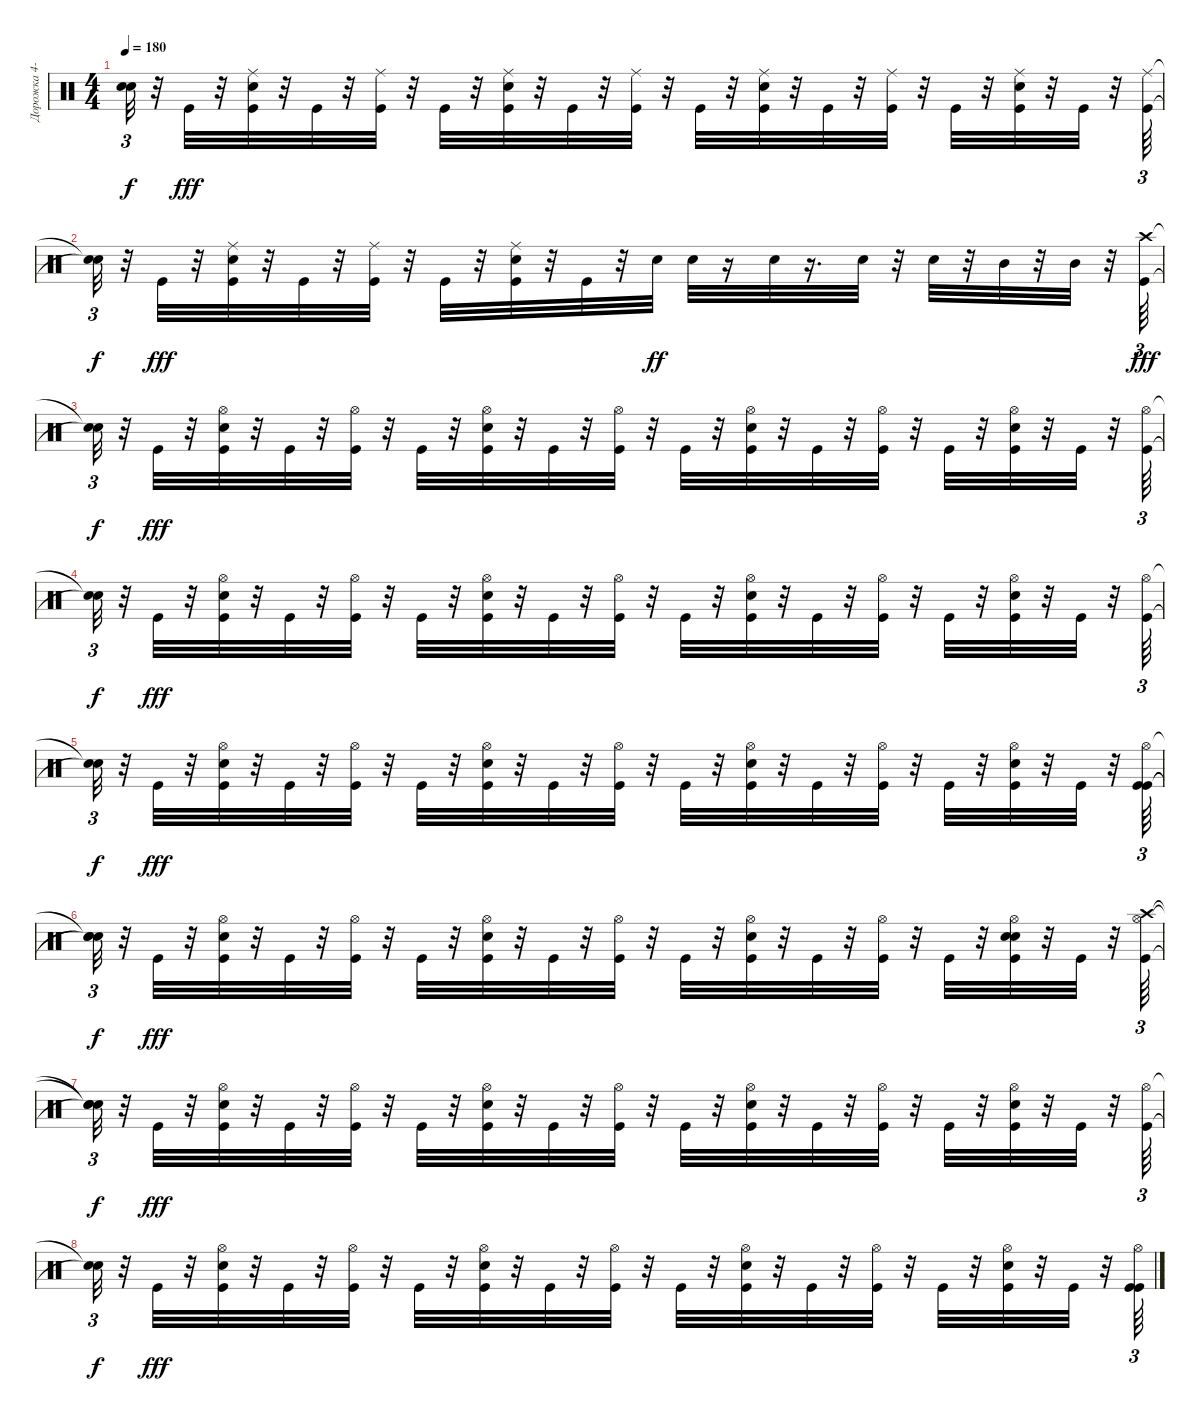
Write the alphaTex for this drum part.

\track ("Дорожка 4-10-11" "Дорожка 4-") {instrument percussion}
\staff {score}
\articulation defaults
\ts (4 4)
\tempo 180
\clef neutral
\ks c
("Snare (hit)"{t} "Snare (hit)"{t}).32{tu (3 2) dy f} r.32 "Kick (hit)".32{dy fff} r.32 ("Ride (middle)" "Snare (hit) 2" "Kick (hit)").32 r.32 "Kick (hit)".32 r.32 ("Ride (middle)" "Kick (hit)").32 r.32 "Kick (hit)".32 r.32 ("Ride (middle)" "Snare (hit) 2" "Kick (hit)").32 r.32 "Kick (hit)".32 r.32 ("Ride (middle)" "Kick (hit)").32 r.32 "Kick (hit)".32 r.32 ("Ride (middle)" "Snare (hit) 2" "Kick (hit)").32 r.32 "Kick (hit)".32 r.32 ("Ride (middle)" "Kick (hit)").32 r.32 "Kick (hit)".32 r.32 ("Ride (middle)" "Snare (hit) 2" "Kick (hit)").32 r.32 "Kick (hit)".32 r.32 ("Ride (middle)" "Kick (hit)").64{tu (3 2)} |
("Snare (hit)"{t} "Snare (hit)"{t}).32{tu (3 2) dy f} r.32 "Kick (hit)".32{dy fff} r.32 ("Ride (middle)" "Snare (hit) 2" "Kick (hit)").32 r.32 "Kick (hit)".32 r.32 ("Ride (middle)" "Kick (hit)").32 r.32 "Kick (hit)".32 r.32 ("Ride (middle)" "Snare (hit) 2" "Kick (hit)").32 r.32 "Kick (hit)".32 r.32 "Snare (hit) 2".32{dy ff} "Snare (hit) 2".32 r.16 "Snare (hit) 2".32 r.16{d} "Snare (hit) 2".32 r.32 "Snare (hit) 2".32 r.32 "Mid Tom (hit)".32 r.32 "Mid Tom (hit)".32 r.32 ("Crash high (hit)" "Kick (hit)").64{tu (3 2) dy fff} |
("Snare (hit)"{t} "Snare (hit)"{t}).32{tu (3 2) dy f} r.32 "Kick (hit)".32{dy fff} r.32 ("Hi-Hat (open)" "Snare (hit) 2" "Kick (hit)").32 r.32 "Kick (hit)".32 r.32 ("Hi-Hat (open)" "Kick (hit)").32 r.32 "Kick (hit)".32 r.32 ("Snare (hit) 2" "Hi-Hat (open)" "Kick (hit)").32 r.32 "Kick (hit)".32 r.32 ("Hi-Hat (open)" "Kick (hit)").32 r.32 "Kick (hit)".32 r.32 ("Hi-Hat (open)" "Snare (hit) 2" "Kick (hit)").32 r.32 "Kick (hit)".32 r.32 ("Hi-Hat (open)" "Kick (hit)").32 r.32 "Kick (hit)".32 r.32 ("Hi-Hat (open)" "Snare (hit) 2" "Kick (hit)").32 r.32 "Kick (hit)".32 r.32 ("Hi-Hat (open)" "Kick (hit)").64{tu (3 2)} |
("Snare (hit)"{t} "Snare (hit)"{t}).32{tu (3 2) dy f} r.32 "Kick (hit)".32{dy fff} r.32 ("Hi-Hat (open)" "Snare (hit) 2" "Kick (hit)").32 r.32 "Kick (hit)".32 r.32 ("Hi-Hat (open)" "Kick (hit)").32 r.32 "Kick (hit)".32 r.32 ("Snare (hit) 2" "Hi-Hat (open)" "Kick (hit)").32 r.32 "Kick (hit)".32 r.32 ("Hi-Hat (open)" "Kick (hit)").32 r.32 "Kick (hit)".32 r.32 ("Hi-Hat (open)" "Snare (hit) 2" "Kick (hit)").32 r.32 "Kick (hit)".32 r.32 ("Hi-Hat (open)" "Kick (hit)").32 r.32 "Kick (hit)".32 r.32 ("Hi-Hat (open)" "Snare (hit) 2" "Kick (hit)").32 r.32 "Kick (hit)".32 r.32 ("Hi-Hat (open)" "Kick (hit)").64{tu (3 2)} |
("Snare (hit)"{t} "Snare (hit)"{t}).32{tu (3 2) dy f} r.32 "Kick (hit)".32{dy fff} r.32 ("Hi-Hat (open)" "Snare (hit) 2" "Kick (hit)").32 r.32 "Kick (hit)".32 r.32 ("Hi-Hat (open)" "Kick (hit)").32 r.32 "Kick (hit)".32 r.32 ("Snare (hit) 2" "Hi-Hat (open)" "Kick (hit)").32 r.32 "Kick (hit)".32 r.32 ("Hi-Hat (open)" "Kick (hit)").32 r.32 "Kick (hit)".32 r.32 ("Hi-Hat (open)" "Snare (hit) 2" "Kick (hit)").32 r.32 "Kick (hit)".32 r.32 ("Hi-Hat (open)" "Kick (hit)").32 r.32 "Kick (hit)".32 r.32 ("Hi-Hat (open)" "Snare (hit) 2" "Kick (hit)").32 r.32 "Kick (hit)".32 r.32 ("Hi-Hat (open)" "Kick (hit)" "Kick (hit)").64{tu (3 2)} |
("Snare (hit)"{t} "Snare (hit)"{t} "Snare (hit)"{t}).32{tu (3 2) dy f} r.32 "Kick (hit)".32{dy fff} r.32 ("Hi-Hat (open)" "Snare (hit) 2" "Kick (hit)").32 r.32 "Kick (hit)".32 r.32 ("Hi-Hat (open)" "Kick (hit)").32 r.32 "Kick (hit)".32 r.32 ("Snare (hit) 2" "Hi-Hat (open)" "Kick (hit)").32 r.32 "Kick (hit)".32 r.32 ("Hi-Hat (open)" "Kick (hit)").32 r.32 "Kick (hit)".32 r.32 ("Hi-Hat (open)" "Snare (hit) 2" "Kick (hit)").32 r.32 "Kick (hit)".32 r.32 ("Hi-Hat (open)" "Kick (hit)").32 r.32 "Kick (hit)".32 r.32 ("Snare (hit) 2" "Hi-Hat (open)" "Snare (hit) 2" "Kick (hit)").32 r.32 "Kick (hit)".32 r.32 ("Crash high (hit)" "Hi-Hat (open)" "Kick (hit)").64{tu (3 2)} |
("Snare (hit)"{t} "Snare (hit)"{t} "Snare (hit)"{t}).32{tu (3 2) dy f} r.32 "Kick (hit)".32{dy fff} r.32 ("Hi-Hat (open)" "Snare (hit) 2" "Kick (hit)").32 r.32 "Kick (hit)".32 r.32 ("Hi-Hat (open)" "Kick (hit)").32 r.32 "Kick (hit)".32 r.32 ("Snare (hit) 2" "Hi-Hat (open)" "Kick (hit)").32 r.32 "Kick (hit)".32 r.32 ("Hi-Hat (open)" "Kick (hit)").32 r.32 "Kick (hit)".32 r.32 ("Hi-Hat (open)" "Snare (hit) 2" "Kick (hit)").32 r.32 "Kick (hit)".32 r.32 ("Hi-Hat (open)" "Kick (hit)").32 r.32 "Kick (hit)".32 r.32 ("Hi-Hat (open)" "Snare (hit) 2" "Kick (hit)").32 r.32 "Kick (hit)".32 r.32 ("Hi-Hat (open)" "Kick (hit)").64{tu (3 2)} |
("Snare (hit)"{t} "Snare (hit)"{t}).32{tu (3 2) dy f} r.32 "Kick (hit)".32{dy fff} r.32 ("Hi-Hat (open)" "Snare (hit) 2" "Kick (hit)").32 r.32 "Kick (hit)".32 r.32 ("Hi-Hat (open)" "Kick (hit)").32 r.32 "Kick (hit)".32 r.32 ("Snare (hit) 2" "Hi-Hat (open)" "Kick (hit)").32 r.32 "Kick (hit)".32 r.32 ("Hi-Hat (open)" "Kick (hit)").32 r.32 "Kick (hit)".32 r.32 ("Hi-Hat (open)" "Snare (hit) 2" "Kick (hit)").32 r.32 "Kick (hit)".32 r.32 ("Hi-Hat (open)" "Kick (hit)").32 r.32 "Kick (hit)".32 r.32 ("Hi-Hat (open)" "Snare (hit) 2" "Kick (hit)").32 r.32 "Kick (hit)".32 r.32 ("Hi-Hat (open)" "Kick (hit)" "Kick (hit)").64{tu (3 2)}
